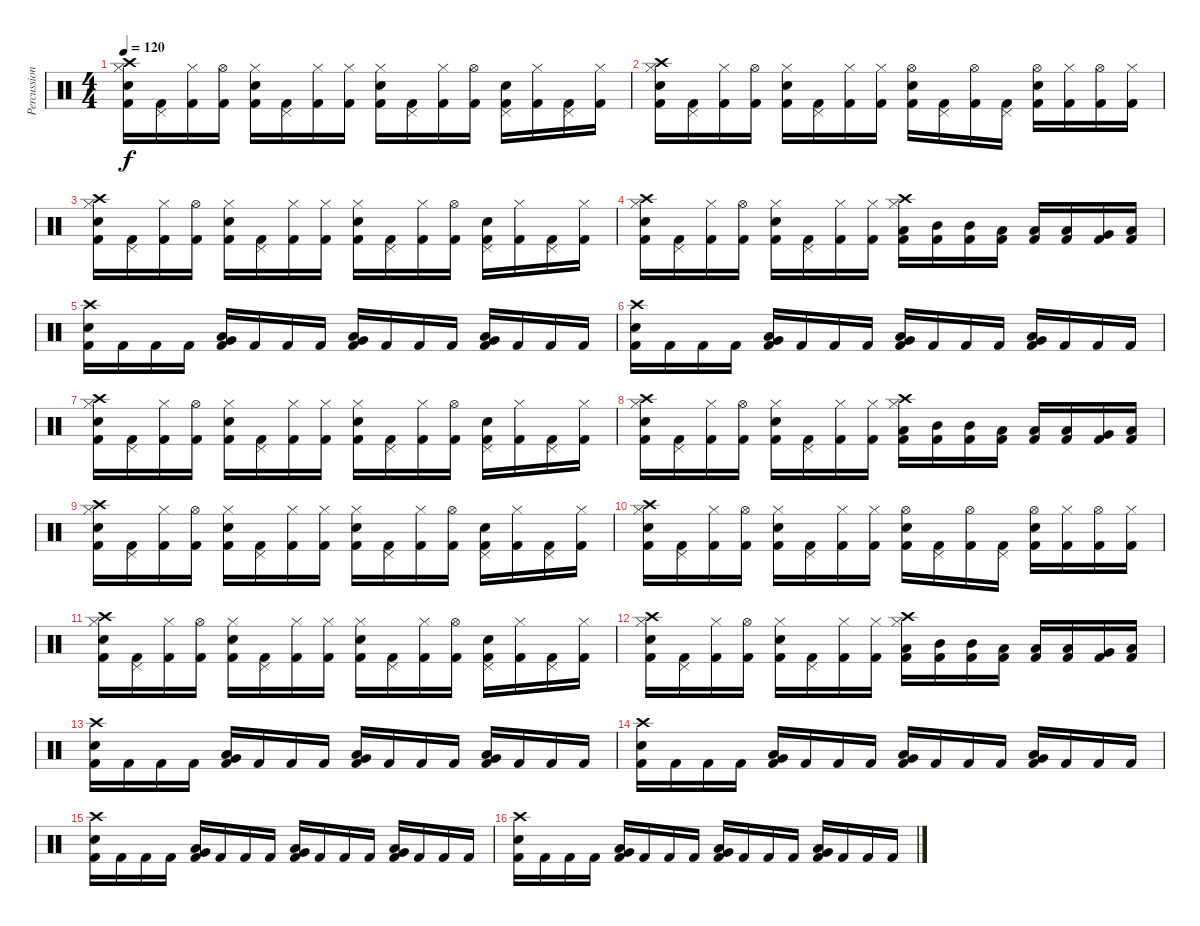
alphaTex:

\track ("Percussion" "Percussion") {instrument percussion}
\staff {score}
\articulation defaults
\ts (4 4)
\tempo 120
\clef neutral
\ks c
("Crash high (hit)" "Hi-Hat (closed)" "Snare (hit) 2" "Kick (hit) 2").16{dy f} ("Pedal Hi-Hat (hit)" "Kick (hit) 2").16 ("Hi-Hat (closed)" "Kick (hit) 2").16 ("Hi-Hat (open)" "Kick (hit) 2").16 ("Hi-Hat (closed)" "Snare (hit) 2" "Kick (hit) 2").16 ("Pedal Hi-Hat (hit)" "Kick (hit) 2").16 ("Hi-Hat (closed)" "Kick (hit) 2").16 ("Hi-Hat (closed)" "Kick (hit) 2").16 ("Hi-Hat (closed)" "Snare (hit) 2" "Kick (hit) 2").16 ("Pedal Hi-Hat (hit)" "Kick (hit) 2").16 ("Hi-Hat (closed)" "Kick (hit) 2").16 ("Hi-Hat (open)" "Kick (hit) 2").16 ("Pedal Hi-Hat (hit)" "Snare (hit) 2" "Kick (hit) 2").16 ("Hi-Hat (closed)" "Kick (hit) 2").16 ("Pedal Hi-Hat (hit)" "Kick (hit) 2").16 ("Hi-Hat (closed)" "Kick (hit) 2").16 |
("Crash high (hit)" "Hi-Hat (closed)" "Snare (hit) 2" "Kick (hit) 2").16 ("Pedal Hi-Hat (hit)" "Kick (hit) 2").16 ("Hi-Hat (closed)" "Kick (hit) 2").16 ("Hi-Hat (open)" "Kick (hit) 2").16 ("Hi-Hat (closed)" "Snare (hit) 2" "Kick (hit) 2").16 ("Pedal Hi-Hat (hit)" "Kick (hit) 2").16 ("Hi-Hat (closed)" "Kick (hit) 2").16 ("Hi-Hat (closed)" "Kick (hit) 2").16 ("Hi-Hat (open)" "Snare (hit) 2" "Kick (hit) 2").16 ("Pedal Hi-Hat (hit)" "Kick (hit) 2").16 ("Hi-Hat (open)" "Kick (hit) 2").16 ("Pedal Hi-Hat (hit)" "Kick (hit) 2").16 ("Hi-Hat (open)" "Snare (hit) 2" "Kick (hit) 2").16 ("Hi-Hat (closed)" "Kick (hit) 2").16 ("Hi-Hat (open)" "Kick (hit) 2").16 ("Hi-Hat (closed)" "Kick (hit) 2").16 |
("Crash high (hit)" "Hi-Hat (closed)" "Snare (hit) 2" "Kick (hit) 2").16 ("Pedal Hi-Hat (hit)" "Kick (hit) 2").16 ("Hi-Hat (closed)" "Kick (hit) 2").16 ("Hi-Hat (open)" "Kick (hit) 2").16 ("Hi-Hat (closed)" "Snare (hit) 2" "Kick (hit) 2").16 ("Pedal Hi-Hat (hit)" "Kick (hit) 2").16 ("Hi-Hat (closed)" "Kick (hit) 2").16 ("Hi-Hat (closed)" "Kick (hit) 2").16 ("Hi-Hat (closed)" "Snare (hit) 2" "Kick (hit) 2").16 ("Pedal Hi-Hat (hit)" "Kick (hit) 2").16 ("Hi-Hat (closed)" "Kick (hit) 2").16 ("Hi-Hat (open)" "Kick (hit) 2").16 ("Pedal Hi-Hat (hit)" "Snare (hit) 2" "Kick (hit) 2").16 ("Hi-Hat (closed)" "Kick (hit) 2").16 ("Pedal Hi-Hat (hit)" "Kick (hit) 2").16 ("Hi-Hat (closed)" "Kick (hit) 2").16 |
("Crash high (hit)" "Hi-Hat (closed)" "Snare (hit) 2" "Kick (hit) 2").16 ("Pedal Hi-Hat (hit)" "Kick (hit) 2").16 ("Hi-Hat (closed)" "Kick (hit) 2").16 ("Hi-Hat (open)" "Kick (hit) 2").16 ("Hi-Hat (closed)" "Snare (hit) 2" "Kick (hit) 2").16 ("Pedal Hi-Hat (hit)" "Kick (hit) 2").16 ("Hi-Hat (closed)" "Kick (hit) 2").16 ("Hi-Hat (closed)" "Kick (hit) 2").16 ("Crash high (hit)" "Hi-Hat (closed)" "Low Floor Tom (hit)" "Kick (hit) 2").16 ("Mid Tom (hit)" "Kick (hit) 2").16 ("Mid Tom (hit)" "Kick (hit) 2").16 ("Low Tom (hit)" "Kick (hit) 2").16 ("Low Tom (hit)" "Kick (hit) 2").16 ("Low Floor Tom (hit)" "Kick (hit) 2").16 ("Very Low Tom (hit)" "Kick (hit) 2").16 ("Low Floor Tom (hit)" "Kick (hit) 2").16 |
("Crash high (hit)" "Snare (hit) 2" "Kick (hit) 2").16 "Kick (hit) 2".16 "Kick (hit) 2".16 "Kick (hit) 2".16 ("Low Floor Tom (hit)" "Very Low Tom (hit)" "Kick (hit) 2").16 "Kick (hit) 2".16 "Kick (hit) 2".16 "Kick (hit) 2".16 ("Low Floor Tom (hit)" "Very Low Tom (hit)" "Kick (hit) 2").16 "Kick (hit) 2".16 "Kick (hit) 2".16 "Kick (hit) 2".16 ("Low Floor Tom (hit)" "Very Low Tom (hit)" "Kick (hit) 2").16 "Kick (hit) 2".16 "Kick (hit) 2".16 "Kick (hit) 2".16 |
("Crash high (hit)" "Snare (hit) 2" "Kick (hit) 2").16 "Kick (hit) 2".16 "Kick (hit) 2".16 "Kick (hit) 2".16 ("Low Floor Tom (hit)" "Very Low Tom (hit)" "Kick (hit) 2").16 "Kick (hit) 2".16 "Kick (hit) 2".16 "Kick (hit) 2".16 ("Low Floor Tom (hit)" "Very Low Tom (hit)" "Kick (hit) 2").16 "Kick (hit) 2".16 "Kick (hit) 2".16 "Kick (hit) 2".16 ("Low Floor Tom (hit)" "Very Low Tom (hit)" "Kick (hit) 2").16 "Kick (hit) 2".16 "Kick (hit) 2".16 "Kick (hit) 2".16 |
("Crash high (hit)" "Hi-Hat (closed)" "Snare (hit) 2" "Kick (hit) 2").16 ("Pedal Hi-Hat (hit)" "Kick (hit) 2").16 ("Hi-Hat (closed)" "Kick (hit) 2").16 ("Hi-Hat (open)" "Kick (hit) 2").16 ("Hi-Hat (closed)" "Snare (hit) 2" "Kick (hit) 2").16 ("Pedal Hi-Hat (hit)" "Kick (hit) 2").16 ("Hi-Hat (closed)" "Kick (hit) 2").16 ("Hi-Hat (closed)" "Kick (hit) 2").16 ("Hi-Hat (closed)" "Snare (hit) 2" "Kick (hit) 2").16 ("Pedal Hi-Hat (hit)" "Kick (hit) 2").16 ("Hi-Hat (closed)" "Kick (hit) 2").16 ("Hi-Hat (open)" "Kick (hit) 2").16 ("Pedal Hi-Hat (hit)" "Snare (hit) 2" "Kick (hit) 2").16 ("Hi-Hat (closed)" "Kick (hit) 2").16 ("Pedal Hi-Hat (hit)" "Kick (hit) 2").16 ("Hi-Hat (closed)" "Kick (hit) 2").16 |
("Crash high (hit)" "Hi-Hat (closed)" "Snare (hit) 2" "Kick (hit) 2").16 ("Pedal Hi-Hat (hit)" "Kick (hit) 2").16 ("Hi-Hat (closed)" "Kick (hit) 2").16 ("Hi-Hat (open)" "Kick (hit) 2").16 ("Hi-Hat (closed)" "Snare (hit) 2" "Kick (hit) 2").16 ("Pedal Hi-Hat (hit)" "Kick (hit) 2").16 ("Hi-Hat (closed)" "Kick (hit) 2").16 ("Hi-Hat (closed)" "Kick (hit) 2").16 ("Crash high (hit)" "Hi-Hat (closed)" "Low Floor Tom (hit)" "Kick (hit) 2").16 ("Mid Tom (hit)" "Kick (hit) 2").16 ("Mid Tom (hit)" "Kick (hit) 2").16 ("Low Tom (hit)" "Kick (hit) 2").16 ("Low Tom (hit)" "Kick (hit) 2").16 ("Low Floor Tom (hit)" "Kick (hit) 2").16 ("Very Low Tom (hit)" "Kick (hit) 2").16 ("Low Floor Tom (hit)" "Kick (hit) 2").16 |
("Crash high (hit)" "Hi-Hat (closed)" "Snare (hit) 2" "Kick (hit) 2").16 ("Pedal Hi-Hat (hit)" "Kick (hit) 2").16 ("Hi-Hat (closed)" "Kick (hit) 2").16 ("Hi-Hat (open)" "Kick (hit) 2").16 ("Hi-Hat (closed)" "Snare (hit) 2" "Kick (hit) 2").16 ("Pedal Hi-Hat (hit)" "Kick (hit) 2").16 ("Hi-Hat (closed)" "Kick (hit) 2").16 ("Hi-Hat (closed)" "Kick (hit) 2").16 ("Hi-Hat (closed)" "Snare (hit) 2" "Kick (hit) 2").16 ("Pedal Hi-Hat (hit)" "Kick (hit) 2").16 ("Hi-Hat (closed)" "Kick (hit) 2").16 ("Hi-Hat (open)" "Kick (hit) 2").16 ("Pedal Hi-Hat (hit)" "Snare (hit) 2" "Kick (hit) 2").16 ("Hi-Hat (closed)" "Kick (hit) 2").16 ("Pedal Hi-Hat (hit)" "Kick (hit) 2").16 ("Hi-Hat (closed)" "Kick (hit) 2").16 |
("Crash high (hit)" "Hi-Hat (closed)" "Snare (hit) 2" "Kick (hit) 2").16 ("Pedal Hi-Hat (hit)" "Kick (hit) 2").16 ("Hi-Hat (closed)" "Kick (hit) 2").16 ("Hi-Hat (open)" "Kick (hit) 2").16 ("Hi-Hat (closed)" "Snare (hit) 2" "Kick (hit) 2").16 ("Pedal Hi-Hat (hit)" "Kick (hit) 2").16 ("Hi-Hat (closed)" "Kick (hit) 2").16 ("Hi-Hat (closed)" "Kick (hit) 2").16 ("Hi-Hat (open)" "Snare (hit) 2" "Kick (hit) 2").16 ("Pedal Hi-Hat (hit)" "Kick (hit) 2").16 ("Hi-Hat (open)" "Kick (hit) 2").16 ("Pedal Hi-Hat (hit)" "Kick (hit) 2").16 ("Hi-Hat (open)" "Snare (hit) 2" "Kick (hit) 2").16 ("Hi-Hat (closed)" "Kick (hit) 2").16 ("Hi-Hat (open)" "Kick (hit) 2").16 ("Hi-Hat (closed)" "Kick (hit) 2").16 |
("Crash high (hit)" "Hi-Hat (closed)" "Snare (hit) 2" "Kick (hit) 2").16 ("Pedal Hi-Hat (hit)" "Kick (hit) 2").16 ("Hi-Hat (closed)" "Kick (hit) 2").16 ("Hi-Hat (open)" "Kick (hit) 2").16 ("Hi-Hat (closed)" "Snare (hit) 2" "Kick (hit) 2").16 ("Pedal Hi-Hat (hit)" "Kick (hit) 2").16 ("Hi-Hat (closed)" "Kick (hit) 2").16 ("Hi-Hat (closed)" "Kick (hit) 2").16 ("Hi-Hat (closed)" "Snare (hit) 2" "Kick (hit) 2").16 ("Pedal Hi-Hat (hit)" "Kick (hit) 2").16 ("Hi-Hat (closed)" "Kick (hit) 2").16 ("Hi-Hat (open)" "Kick (hit) 2").16 ("Pedal Hi-Hat (hit)" "Snare (hit) 2" "Kick (hit) 2").16 ("Hi-Hat (closed)" "Kick (hit) 2").16 ("Pedal Hi-Hat (hit)" "Kick (hit) 2").16 ("Hi-Hat (closed)" "Kick (hit) 2").16 |
("Crash high (hit)" "Hi-Hat (closed)" "Snare (hit) 2" "Kick (hit) 2").16 ("Pedal Hi-Hat (hit)" "Kick (hit) 2").16 ("Hi-Hat (closed)" "Kick (hit) 2").16 ("Hi-Hat (open)" "Kick (hit) 2").16 ("Hi-Hat (closed)" "Snare (hit) 2" "Kick (hit) 2").16 ("Pedal Hi-Hat (hit)" "Kick (hit) 2").16 ("Hi-Hat (closed)" "Kick (hit) 2").16 ("Hi-Hat (closed)" "Kick (hit) 2").16 ("Crash high (hit)" "Hi-Hat (closed)" "Low Floor Tom (hit)" "Kick (hit) 2").16 ("Mid Tom (hit)" "Kick (hit) 2").16 ("Mid Tom (hit)" "Kick (hit) 2").16 ("Low Tom (hit)" "Kick (hit) 2").16 ("Low Tom (hit)" "Kick (hit) 2").16 ("Low Floor Tom (hit)" "Kick (hit) 2").16 ("Very Low Tom (hit)" "Kick (hit) 2").16 ("Low Floor Tom (hit)" "Kick (hit) 2").16 |
("Crash high (hit)" "Snare (hit) 2" "Kick (hit) 2").16 "Kick (hit) 2".16 "Kick (hit) 2".16 "Kick (hit) 2".16 ("Low Floor Tom (hit)" "Very Low Tom (hit)" "Kick (hit) 2").16 "Kick (hit) 2".16 "Kick (hit) 2".16 "Kick (hit) 2".16 ("Low Floor Tom (hit)" "Very Low Tom (hit)" "Kick (hit) 2").16 "Kick (hit) 2".16 "Kick (hit) 2".16 "Kick (hit) 2".16 ("Low Floor Tom (hit)" "Very Low Tom (hit)" "Kick (hit) 2").16 "Kick (hit) 2".16 "Kick (hit) 2".16 "Kick (hit) 2".16 |
("Crash high (hit)" "Snare (hit) 2" "Kick (hit) 2").16 "Kick (hit) 2".16 "Kick (hit) 2".16 "Kick (hit) 2".16 ("Low Floor Tom (hit)" "Very Low Tom (hit)" "Kick (hit) 2").16 "Kick (hit) 2".16 "Kick (hit) 2".16 "Kick (hit) 2".16 ("Low Floor Tom (hit)" "Very Low Tom (hit)" "Kick (hit) 2").16 "Kick (hit) 2".16 "Kick (hit) 2".16 "Kick (hit) 2".16 ("Low Floor Tom (hit)" "Very Low Tom (hit)" "Kick (hit) 2").16 "Kick (hit) 2".16 "Kick (hit) 2".16 "Kick (hit) 2".16 |
("Crash high (hit)" "Snare (hit) 2" "Kick (hit) 2").16 "Kick (hit) 2".16 "Kick (hit) 2".16 "Kick (hit) 2".16 ("Low Floor Tom (hit)" "Very Low Tom (hit)" "Kick (hit) 2").16 "Kick (hit) 2".16 "Kick (hit) 2".16 "Kick (hit) 2".16 ("Low Floor Tom (hit)" "Very Low Tom (hit)" "Kick (hit) 2").16 "Kick (hit) 2".16 "Kick (hit) 2".16 "Kick (hit) 2".16 ("Low Floor Tom (hit)" "Very Low Tom (hit)" "Kick (hit) 2").16 "Kick (hit) 2".16 "Kick (hit) 2".16 "Kick (hit) 2".16 |
("Crash high (hit)" "Snare (hit) 2" "Kick (hit) 2").16 "Kick (hit) 2".16 "Kick (hit) 2".16 "Kick (hit) 2".16 ("Low Floor Tom (hit)" "Very Low Tom (hit)" "Kick (hit) 2").16 "Kick (hit) 2".16 "Kick (hit) 2".16 "Kick (hit) 2".16 ("Low Floor Tom (hit)" "Very Low Tom (hit)" "Kick (hit) 2").16 "Kick (hit) 2".16 "Kick (hit) 2".16 "Kick (hit) 2".16 ("Low Floor Tom (hit)" "Very Low Tom (hit)" "Kick (hit) 2").16 "Kick (hit) 2".16 "Kick (hit) 2".16 "Kick (hit) 2".16
